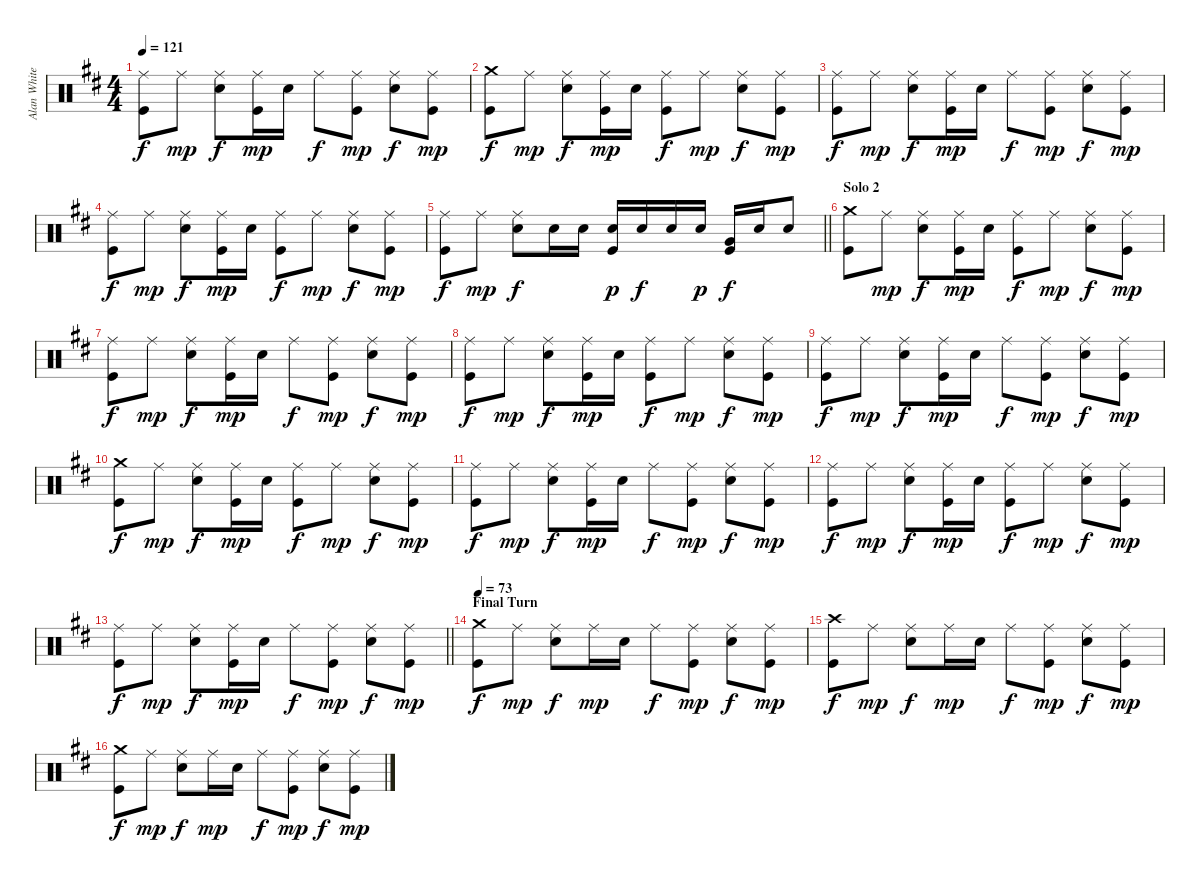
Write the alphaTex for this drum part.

\track ("Alan White" "Alan White") {instrument percussion}
\staff {score}
\articulation defaults
\ts (4 4)
\tempo 121
\clef neutral
\ks d
("Ride (middle)" "Kick (hit)").8{dy f} "Ride (middle)".8{dy mp} ("Ride (middle)" "Electric Snare (hit)").8{dy f} ("Ride (middle)" "Kick (hit)").16{dy mp} "Electric Snare (hit)".16 "Ride (middle)".8{dy f} ("Ride (middle)" "Kick (hit)").8{dy mp} ("Ride (middle)" "Electric Snare (hit)").8{dy f} ("Ride (middle)" "Kick (hit)").8{dy mp} |
("Crash medium (hit)" "Kick (hit)").8{dy f} "Ride (middle)".8{dy mp} ("Ride (middle)" "Electric Snare (hit)").8{dy f} ("Ride (middle)" "Kick (hit)").16{dy mp} "Electric Snare (hit)".16 ("Ride (middle)" "Kick (hit)").8{dy f} "Ride (middle)".8{dy mp} ("Ride (middle)" "Electric Snare (hit)").8{dy f} ("Ride (middle)" "Kick (hit)").8{dy mp} |
("Ride (middle)" "Kick (hit)").8{dy f} "Ride (middle)".8{dy mp} ("Ride (middle)" "Electric Snare (hit)").8{dy f} ("Ride (middle)" "Kick (hit)").16{dy mp} "Electric Snare (hit)".16 "Ride (middle)".8{dy f} ("Ride (middle)" "Kick (hit)").8{dy mp} ("Ride (middle)" "Electric Snare (hit)").8{dy f} ("Ride (middle)" "Kick (hit)").8{dy mp} |
("Ride (middle)" "Kick (hit)").8{dy f} "Ride (middle)".8{dy mp} ("Ride (middle)" "Electric Snare (hit)").8{dy f} ("Ride (middle)" "Kick (hit)").16{dy mp} "Electric Snare (hit)".16 ("Ride (middle)" "Kick (hit)").8{dy f} "Ride (middle)".8{dy mp} ("Ride (middle)" "Electric Snare (hit)").8{dy f} ("Ride (middle)" "Kick (hit)").8{dy mp} |
\barLineRight lightlight
("Ride (middle)" "Kick (hit)").8{dy f} "Ride (middle)".8{dy mp} ("Ride (middle)" "Electric Snare (hit)").8{dy f} "Electric Snare (hit)".16 "Electric Snare (hit)".16 ("Electric Snare (hit)" "Kick (hit)").16{dy p} "Electric Snare (hit)".16{dy f} "Electric Snare (hit)".16 "Electric Snare (hit)".16{dy p} ("Very Low Tom (hit)" "Kick (hit)").16{dy f} "Electric Snare (hit)".16 "Electric Snare (hit)".8 |
\section ("" "Solo 2")
("Crash medium (hit)" "Kick (hit)").8 "Ride (middle)".8{dy mp} ("Ride (middle)" "Electric Snare (hit)").8{dy f} ("Ride (middle)" "Kick (hit)").16{dy mp} "Electric Snare (hit)".16 ("Ride (middle)" "Kick (hit)").8{dy f} "Ride (middle)".8{dy mp} ("Ride (middle)" "Electric Snare (hit)").8{dy f} ("Ride (middle)" "Kick (hit)").8{dy mp} |
("Ride (middle)" "Kick (hit)").8{dy f} "Ride (middle)".8{dy mp} ("Ride (middle)" "Electric Snare (hit)").8{dy f} ("Ride (middle)" "Kick (hit)").16{dy mp} "Electric Snare (hit)".16 "Ride (middle)".8{dy f} ("Ride (middle)" "Kick (hit)").8{dy mp} ("Ride (middle)" "Electric Snare (hit)").8{dy f} ("Ride (middle)" "Kick (hit)").8{dy mp} |
("Ride (middle)" "Kick (hit)").8{dy f} "Ride (middle)".8{dy mp} ("Ride (middle)" "Electric Snare (hit)").8{dy f} ("Ride (middle)" "Kick (hit)").16{dy mp} "Electric Snare (hit)".16 ("Ride (middle)" "Kick (hit)").8{dy f} "Ride (middle)".8{dy mp} ("Ride (middle)" "Electric Snare (hit)").8{dy f} ("Ride (middle)" "Kick (hit)").8{dy mp} |
("Ride (middle)" "Kick (hit)").8{dy f} "Ride (middle)".8{dy mp} ("Ride (middle)" "Electric Snare (hit)").8{dy f} ("Ride (middle)" "Kick (hit)").16{dy mp} "Electric Snare (hit)".16 "Ride (middle)".8{dy f} ("Ride (middle)" "Kick (hit)").8{dy mp} ("Ride (middle)" "Electric Snare (hit)").8{dy f} ("Ride (middle)" "Kick (hit)").8{dy mp} |
("Crash medium (hit)" "Kick (hit)").8{dy f} "Ride (middle)".8{dy mp} ("Ride (middle)" "Electric Snare (hit)").8{dy f} ("Ride (middle)" "Kick (hit)").16{dy mp} "Electric Snare (hit)".16 ("Ride (middle)" "Kick (hit)").8{dy f} "Ride (middle)".8{dy mp} ("Ride (middle)" "Electric Snare (hit)").8{dy f} ("Ride (middle)" "Kick (hit)").8{dy mp} |
("Ride (middle)" "Kick (hit)").8{dy f} "Ride (middle)".8{dy mp} ("Ride (middle)" "Electric Snare (hit)").8{dy f} ("Ride (middle)" "Kick (hit)").16{dy mp} "Electric Snare (hit)".16 "Ride (middle)".8{dy f} ("Ride (middle)" "Kick (hit)").8{dy mp} ("Ride (middle)" "Electric Snare (hit)").8{dy f} ("Ride (middle)" "Kick (hit)").8{dy mp} |
("Ride (middle)" "Kick (hit)").8{dy f} "Ride (middle)".8{dy mp} ("Ride (middle)" "Electric Snare (hit)").8{dy f} ("Ride (middle)" "Kick (hit)").16{dy mp} "Electric Snare (hit)".16 ("Ride (middle)" "Kick (hit)").8{dy f} "Ride (middle)".8{dy mp} ("Ride (middle)" "Electric Snare (hit)").8{dy f} ("Ride (middle)" "Kick (hit)").8{dy mp} |
\barLineRight lightlight
("Ride (middle)" "Kick (hit)").8{dy f} "Ride (middle)".8{dy mp} ("Ride (middle)" "Electric Snare (hit)").8{dy f} ("Ride (middle)" "Kick (hit)").16{dy mp} "Electric Snare (hit)".16 "Ride (middle)".8{dy f} ("Ride (middle)" "Kick (hit)").8{dy mp} ("Ride (middle)" "Electric Snare (hit)").8{dy f} ("Ride (middle)" "Kick (hit)").8{dy mp} |
\section ("" "Final Turn")
\tempo 73
("Crash medium (hit)" "Kick (hit)").8{dy f} "Ride (middle)".8{dy mp} ("Ride (middle)" "Electric Snare (hit)").8{dy f} "Ride (middle)".16{dy mp} "Electric Snare (hit)".16 "Ride (middle)".8{dy f} ("Ride (middle)" "Kick (hit)").8{dy mp} ("Ride (middle)" "Electric Snare (hit)").8{dy f} ("Ride (middle)" "Kick (hit)").8{dy mp} |
("Crash high (hit)" "Kick (hit)").8{dy f} "Ride (middle)".8{dy mp} ("Ride (middle)" "Electric Snare (hit)").8{dy f} "Ride (middle)".16{dy mp} "Electric Snare (hit)".16 "Ride (middle)".8{dy f} ("Ride (middle)" "Kick (hit)").8{dy mp} ("Ride (middle)" "Electric Snare (hit)").8{dy f} ("Ride (middle)" "Kick (hit)").8{dy mp} |
("Crash medium (hit)" "Kick (hit)").8{dy f} "Ride (middle)".8{dy mp} ("Ride (middle)" "Electric Snare (hit)").8{dy f} "Ride (middle)".16{dy mp} "Electric Snare (hit)".16 "Ride (middle)".8{dy f} ("Ride (middle)" "Kick (hit)").8{dy mp} ("Ride (middle)" "Electric Snare (hit)").8{dy f} ("Ride (middle)" "Kick (hit)").8{dy mp}
